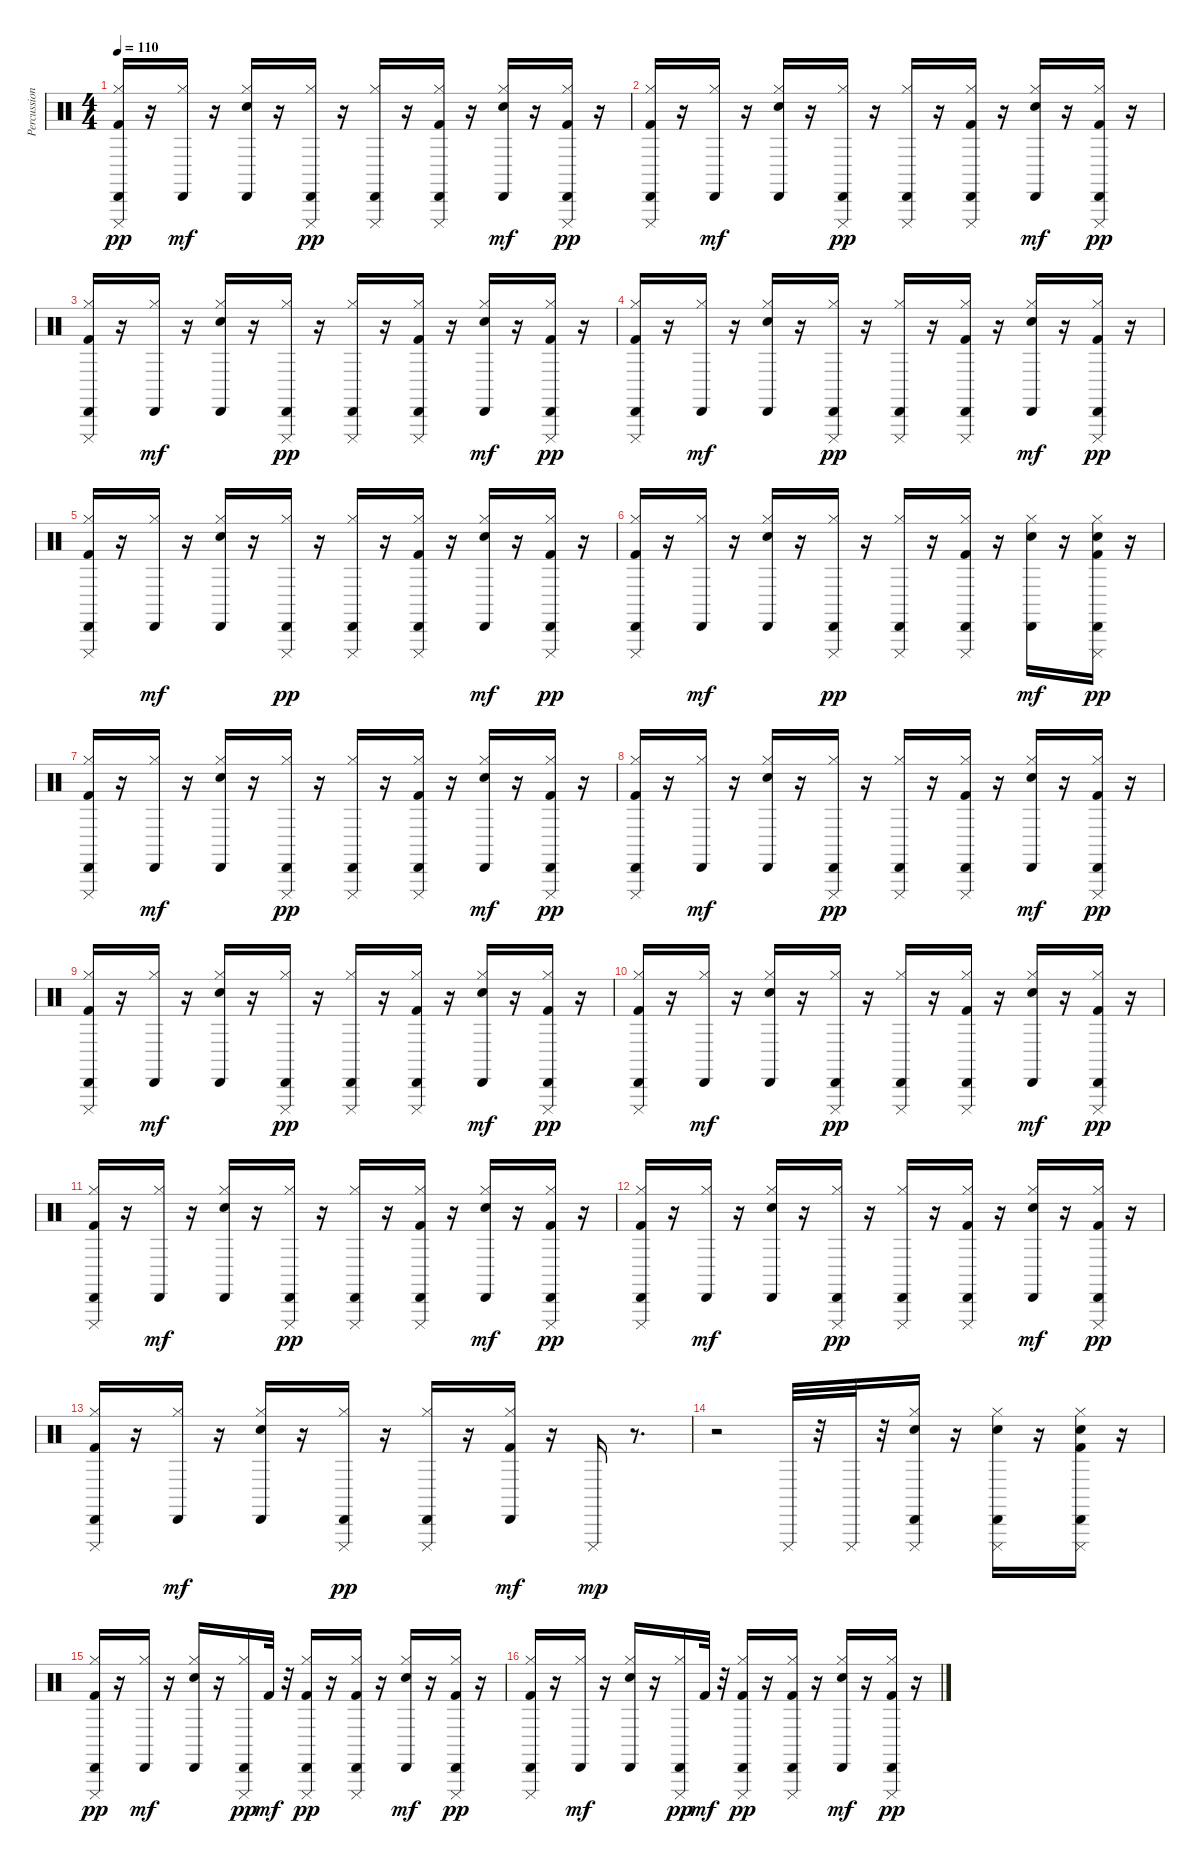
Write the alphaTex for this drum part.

\track ("Percussion" "Percussion") {instrument percussion}
\staff {score}
\articulation defaults
\ts (4 4)
\tempo 110
\clef neutral
\ks c
("Kick (hit) 2" "Hi-Hat (closed)" "Cabasa (hit)" "Cuica (mute)").16{dy pp} r.16 ("Hi-Hat (closed)" "Cabasa (hit)").16{dy mf} r.16 ("Electric Snare (hit)" "Hi-Hat (closed)" "Cabasa (hit)").16 r.16 ("Hi-Hat (closed)" "Cabasa (hit)" "Cuica (mute)").16{dy pp} r.16 ("Hi-Hat (closed)" "Cabasa (hit)" "Cuica (mute)").16 r.16 ("Kick (hit) 2" "Hi-Hat (closed)" "Cabasa (hit)" "Cuica (mute)").16 r.16 ("Electric Snare (hit)" "Hi-Hat (closed)" "Cabasa (hit)").16{dy mf} r.16 ("Kick (hit) 2" "Hi-Hat (closed)" "Cabasa (hit)" "Cuica (mute)").16{dy pp} r.16 |
("Kick (hit) 2" "Hi-Hat (closed)" "Cabasa (hit)" "Cuica (mute)").16 r.16 ("Hi-Hat (closed)" "Cabasa (hit)").16{dy mf} r.16 ("Electric Snare (hit)" "Hi-Hat (closed)" "Cabasa (hit)").16 r.16 ("Hi-Hat (closed)" "Cabasa (hit)" "Cuica (mute)").16{dy pp} r.16 ("Hi-Hat (closed)" "Cabasa (hit)" "Cuica (mute)").16 r.16 ("Kick (hit) 2" "Hi-Hat (closed)" "Cabasa (hit)" "Cuica (mute)").16 r.16 ("Electric Snare (hit)" "Hi-Hat (closed)" "Cabasa (hit)").16{dy mf} r.16 ("Kick (hit) 2" "Hi-Hat (closed)" "Cabasa (hit)" "Cuica (mute)").16{dy pp} r.16 |
("Kick (hit) 2" "Hi-Hat (closed)" "Cabasa (hit)" "Cuica (mute)").16 r.16 ("Hi-Hat (closed)" "Cabasa (hit)").16{dy mf} r.16 ("Electric Snare (hit)" "Hi-Hat (closed)" "Cabasa (hit)").16 r.16 ("Hi-Hat (closed)" "Cabasa (hit)" "Cuica (mute)").16{dy pp} r.16 ("Hi-Hat (closed)" "Cabasa (hit)" "Cuica (mute)").16 r.16 ("Kick (hit) 2" "Hi-Hat (closed)" "Cabasa (hit)" "Cuica (mute)").16 r.16 ("Electric Snare (hit)" "Hi-Hat (closed)" "Cabasa (hit)").16{dy mf} r.16 ("Kick (hit) 2" "Hi-Hat (closed)" "Cabasa (hit)" "Cuica (mute)").16{dy pp} r.16 |
("Kick (hit) 2" "Hi-Hat (closed)" "Cabasa (hit)" "Cuica (mute)").16 r.16 ("Hi-Hat (closed)" "Cabasa (hit)").16{dy mf} r.16 ("Electric Snare (hit)" "Hi-Hat (closed)" "Cabasa (hit)").16 r.16 ("Hi-Hat (closed)" "Cabasa (hit)" "Cuica (mute)").16{dy pp} r.16 ("Hi-Hat (closed)" "Cabasa (hit)" "Cuica (mute)").16 r.16 ("Kick (hit) 2" "Hi-Hat (closed)" "Cabasa (hit)" "Cuica (mute)").16 r.16 ("Electric Snare (hit)" "Hi-Hat (closed)" "Cabasa (hit)").16{dy mf} r.16 ("Kick (hit) 2" "Hi-Hat (closed)" "Cabasa (hit)" "Cuica (mute)").16{dy pp} r.16 |
("Kick (hit) 2" "Hi-Hat (closed)" "Cabasa (hit)" "Cuica (mute)").16 r.16 ("Hi-Hat (closed)" "Cabasa (hit)").16{dy mf} r.16 ("Electric Snare (hit)" "Hi-Hat (closed)" "Cabasa (hit)").16 r.16 ("Hi-Hat (closed)" "Cabasa (hit)" "Cuica (mute)").16{dy pp} r.16 ("Hi-Hat (closed)" "Cabasa (hit)" "Cuica (mute)").16 r.16 ("Kick (hit) 2" "Hi-Hat (closed)" "Cabasa (hit)" "Cuica (mute)").16 r.16 ("Electric Snare (hit)" "Hi-Hat (closed)" "Cabasa (hit)").16{dy mf} r.16 ("Kick (hit) 2" "Hi-Hat (closed)" "Cabasa (hit)" "Cuica (mute)").16{dy pp} r.16 |
("Kick (hit) 2" "Hi-Hat (closed)" "Cabasa (hit)" "Cuica (mute)").16 r.16 ("Hi-Hat (closed)" "Cabasa (hit)").16{dy mf} r.16 ("Electric Snare (hit)" "Hi-Hat (closed)" "Cabasa (hit)").16 r.16 ("Hi-Hat (closed)" "Cabasa (hit)" "Cuica (mute)").16{dy pp} r.16 ("Hi-Hat (closed)" "Cabasa (hit)" "Cuica (mute)").16 r.16 ("Kick (hit) 2" "Hi-Hat (closed)" "Cabasa (hit)" "Cuica (mute)").16 r.16 ("Electric Snare (hit)" "Hi-Hat (closed)" "Cabasa (hit)").16{dy mf} r.16 ("Kick (hit) 2" "Electric Snare (hit)" "Hi-Hat (closed)" "Cabasa (hit)" "Cuica (mute)").16{dy pp} r.16 |
("Kick (hit) 2" "Hi-Hat (closed)" "Cabasa (hit)" "Cuica (mute)").16 r.16 ("Hi-Hat (closed)" "Cabasa (hit)").16{dy mf} r.16 ("Electric Snare (hit)" "Hi-Hat (closed)" "Cabasa (hit)").16 r.16 ("Hi-Hat (closed)" "Cabasa (hit)" "Cuica (mute)").16{dy pp} r.16 ("Hi-Hat (closed)" "Cabasa (hit)" "Cuica (mute)").16 r.16 ("Kick (hit) 2" "Hi-Hat (closed)" "Cabasa (hit)" "Cuica (mute)").16 r.16 ("Electric Snare (hit)" "Hi-Hat (closed)" "Cabasa (hit)").16{dy mf} r.16 ("Kick (hit) 2" "Hi-Hat (closed)" "Cabasa (hit)" "Cuica (mute)").16{dy pp} r.16 |
("Kick (hit) 2" "Hi-Hat (closed)" "Cabasa (hit)" "Cuica (mute)").16 r.16 ("Hi-Hat (closed)" "Cabasa (hit)").16{dy mf} r.16 ("Electric Snare (hit)" "Hi-Hat (closed)" "Cabasa (hit)").16 r.16 ("Hi-Hat (closed)" "Cabasa (hit)" "Cuica (mute)").16{dy pp} r.16 ("Hi-Hat (closed)" "Cabasa (hit)" "Cuica (mute)").16 r.16 ("Kick (hit) 2" "Hi-Hat (closed)" "Cabasa (hit)" "Cuica (mute)").16 r.16 ("Electric Snare (hit)" "Hi-Hat (closed)" "Cabasa (hit)").16{dy mf} r.16 ("Kick (hit) 2" "Hi-Hat (closed)" "Cabasa (hit)" "Cuica (mute)").16{dy pp} r.16 |
("Kick (hit) 2" "Hi-Hat (closed)" "Cabasa (hit)" "Cuica (mute)").16 r.16 ("Hi-Hat (closed)" "Cabasa (hit)").16{dy mf} r.16 ("Electric Snare (hit)" "Hi-Hat (closed)" "Cabasa (hit)").16 r.16 ("Hi-Hat (closed)" "Cabasa (hit)" "Cuica (mute)").16{dy pp} r.16 ("Hi-Hat (closed)" "Cabasa (hit)" "Cuica (mute)").16 r.16 ("Kick (hit) 2" "Hi-Hat (closed)" "Cabasa (hit)" "Cuica (mute)").16 r.16 ("Electric Snare (hit)" "Hi-Hat (closed)" "Cabasa (hit)").16{dy mf} r.16 ("Kick (hit) 2" "Hi-Hat (closed)" "Cabasa (hit)" "Cuica (mute)").16{dy pp} r.16 |
("Kick (hit) 2" "Hi-Hat (closed)" "Cabasa (hit)" "Cuica (mute)").16 r.16 ("Hi-Hat (closed)" "Cabasa (hit)").16{dy mf} r.16 ("Electric Snare (hit)" "Hi-Hat (closed)" "Cabasa (hit)").16 r.16 ("Hi-Hat (closed)" "Cabasa (hit)" "Cuica (mute)").16{dy pp} r.16 ("Hi-Hat (closed)" "Cabasa (hit)" "Cuica (mute)").16 r.16 ("Kick (hit) 2" "Hi-Hat (closed)" "Cabasa (hit)" "Cuica (mute)").16 r.16 ("Electric Snare (hit)" "Hi-Hat (closed)" "Cabasa (hit)").16{dy mf} r.16 ("Kick (hit) 2" "Hi-Hat (closed)" "Cabasa (hit)" "Cuica (mute)").16{dy pp} r.16 |
("Kick (hit) 2" "Hi-Hat (closed)" "Cabasa (hit)" "Cuica (mute)").16 r.16 ("Hi-Hat (closed)" "Cabasa (hit)").16{dy mf} r.16 ("Electric Snare (hit)" "Hi-Hat (closed)" "Cabasa (hit)").16 r.16 ("Hi-Hat (closed)" "Cabasa (hit)" "Cuica (mute)").16{dy pp} r.16 ("Hi-Hat (closed)" "Cabasa (hit)" "Cuica (mute)").16 r.16 ("Kick (hit) 2" "Hi-Hat (closed)" "Cabasa (hit)" "Cuica (mute)").16 r.16 ("Electric Snare (hit)" "Hi-Hat (closed)" "Cabasa (hit)").16{dy mf} r.16 ("Kick (hit) 2" "Hi-Hat (closed)" "Cabasa (hit)" "Cuica (mute)").16{dy pp} r.16 |
("Kick (hit) 2" "Hi-Hat (closed)" "Cabasa (hit)" "Cuica (mute)").16 r.16 ("Hi-Hat (closed)" "Cabasa (hit)").16{dy mf} r.16 ("Electric Snare (hit)" "Hi-Hat (closed)" "Cabasa (hit)").16 r.16 ("Hi-Hat (closed)" "Cabasa (hit)" "Cuica (mute)").16{dy pp} r.16 ("Hi-Hat (closed)" "Cabasa (hit)" "Cuica (mute)").16 r.16 ("Kick (hit) 2" "Hi-Hat (closed)" "Cabasa (hit)" "Cuica (mute)").16 r.16 ("Electric Snare (hit)" "Hi-Hat (closed)" "Cabasa (hit)").16{dy mf} r.16 ("Kick (hit) 2" "Hi-Hat (closed)" "Cabasa (hit)" "Cuica (mute)").16{dy pp} r.16 |
("Kick (hit) 2" "Hi-Hat (closed)" "Cabasa (hit)" "Cuica (mute)").16 r.16 ("Hi-Hat (closed)" "Cabasa (hit)").16{dy mf} r.16 ("Electric Snare (hit)" "Hi-Hat (closed)" "Cabasa (hit)").16 r.16 ("Hi-Hat (closed)" "Cabasa (hit)" "Cuica (mute)").16{dy pp} r.16 ("Hi-Hat (closed)" "Cabasa (hit)" "Cuica (mute)").16 r.16 ("Kick (hit) 2" "Hi-Hat (closed)" "Cabasa (hit)").16{dy mf} r.16 "Cuica (mute)".16{dy mp} r.8{d} |
r.2 "Cuica (mute)".32 r.32 "Cuica (mute)".32 r.32 ("Electric Snare (hit)" "Hi-Hat (closed)" "Cabasa (hit)" "Cuica (mute)").16 r.16 ("Electric Snare (hit)" "Hi-Hat (closed)" "Cabasa (hit)" "Cuica (mute)").16 r.16 ("Kick (hit) 2" "Electric Snare (hit)" "Hi-Hat (closed)" "Cabasa (hit)" "Cuica (mute)").16 r.16 |
("Kick (hit) 2" "Hi-Hat (closed)" "Cabasa (hit)" "Cuica (mute)").16{dy pp} r.16 ("Hi-Hat (closed)" "Cabasa (hit)").16{dy mf} r.16 ("Electric Snare (hit)" "Hi-Hat (closed)" "Cabasa (hit)").16 r.16 ("Hi-Hat (closed)" "Cabasa (hit)" "Cuica (mute)").16{dy pp} "Kick (hit) 2".32{dy mf} r.32 ("Kick (hit) 2" "Hi-Hat (closed)" "Cabasa (hit)" "Cuica (mute)").16{dy pp} r.16 ("Kick (hit) 2" "Hi-Hat (closed)" "Cabasa (hit)" "Cuica (mute)").16 r.16 ("Electric Snare (hit)" "Hi-Hat (closed)" "Cabasa (hit)").16{dy mf} r.16 ("Kick (hit) 2" "Hi-Hat (closed)" "Cabasa (hit)" "Cuica (mute)").16{dy pp} r.16 |
("Kick (hit) 2" "Hi-Hat (closed)" "Cabasa (hit)" "Cuica (mute)").16 r.16 ("Hi-Hat (closed)" "Cabasa (hit)").16{dy mf} r.16 ("Electric Snare (hit)" "Hi-Hat (closed)" "Cabasa (hit)").16 r.16 ("Hi-Hat (closed)" "Cabasa (hit)" "Cuica (mute)").16{dy pp} "Kick (hit) 2".32{dy mf} r.32 ("Kick (hit) 2" "Hi-Hat (closed)" "Cabasa (hit)" "Cuica (mute)").16{dy pp} r.16 ("Kick (hit) 2" "Hi-Hat (closed)" "Cabasa (hit)" "Cuica (mute)").16 r.16 ("Electric Snare (hit)" "Hi-Hat (closed)" "Cabasa (hit)").16{dy mf} r.16 ("Kick (hit) 2" "Hi-Hat (closed)" "Cabasa (hit)" "Cuica (mute)").16{dy pp} r.16
